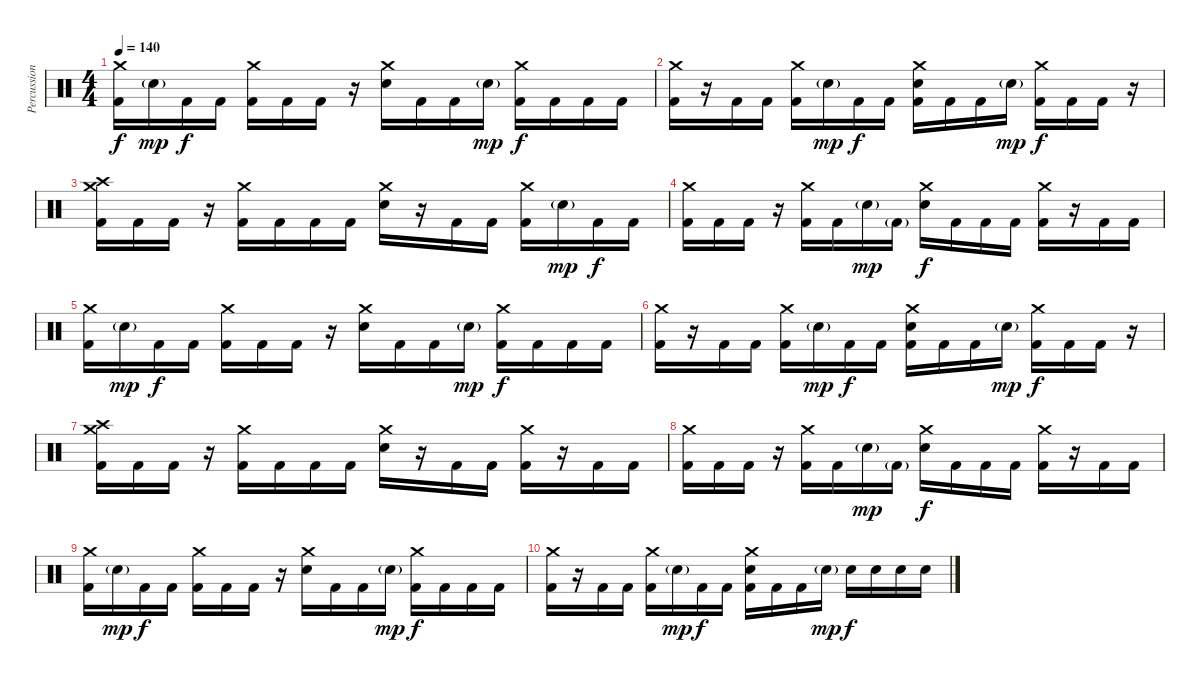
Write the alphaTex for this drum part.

\track ("Percussion" "Percussion") {instrument percussion}
\staff {score}
\articulation defaults
\ts (4 4)
\tempo 140
\clef neutral
\ks c
("Crash medium (hit)" "Kick (hit) 2").16{dy f} "Electric Snare (hit)"{g}.16{dy mp} "Kick (hit) 2".16{dy f} "Kick (hit) 2".16 ("Crash medium (hit)" "Kick (hit) 2").16 "Kick (hit) 2".16 "Kick (hit) 2".16 r.16 ("Crash medium (hit)" "Electric Snare (hit)").16 "Kick (hit) 2".16 "Kick (hit) 2".16 "Electric Snare (hit)"{g}.16{dy mp} ("Crash medium (hit)" "Kick (hit) 2").16{dy f} "Kick (hit) 2".16 "Kick (hit) 2".16 "Kick (hit) 2".16 |
("Crash medium (hit)" "Kick (hit) 2").16 r.16 "Kick (hit) 2".16 "Kick (hit) 2".16 ("Crash medium (hit)" "Kick (hit) 2").16 "Electric Snare (hit)"{g}.16{dy mp} "Kick (hit) 2".16{dy f} "Kick (hit) 2".16 ("Crash medium (hit)" "Electric Snare (hit)" "Kick (hit) 2").16 "Kick (hit) 2".16 "Kick (hit) 2".16 "Electric Snare (hit)"{g}.16{dy mp} ("Crash medium (hit)" "Kick (hit) 2").16{dy f} "Kick (hit) 2".16 "Kick (hit) 2".16 r.16 |
("Crash high (hit)" "Crash medium (hit)" "Kick (hit) 2").16 "Kick (hit) 2".16 "Kick (hit) 2".16 r.16 ("Crash medium (hit)" "Kick (hit) 2").16 "Kick (hit) 2".16 "Kick (hit) 2".16 "Kick (hit) 2".16 ("Crash medium (hit)" "Electric Snare (hit)").16 r.16 "Kick (hit) 2".16 "Kick (hit) 2".16 ("Crash medium (hit)" "Kick (hit) 2").16 "Electric Snare (hit)"{g}.16{dy mp} "Kick (hit) 2".16{dy f} "Kick (hit) 2".16 |
("Crash medium (hit)" "Kick (hit) 2").16 "Kick (hit) 2".16 "Kick (hit) 2".16 r.16 ("Crash medium (hit)" "Kick (hit) 2").16 "Kick (hit) 2".16 "Electric Snare (hit)"{g}.16{dy mp} "Kick (hit) 2"{g}.16 ("Crash medium (hit)" "Electric Snare (hit)").16{dy f} "Kick (hit) 2".16 "Kick (hit) 2".16 "Kick (hit) 2".16 ("Crash medium (hit)" "Kick (hit) 2").16 r.16 "Kick (hit) 2".16 "Kick (hit) 2".16 |
("Crash medium (hit)" "Kick (hit) 2").16 "Electric Snare (hit)"{g}.16{dy mp} "Kick (hit) 2".16{dy f} "Kick (hit) 2".16 ("Crash medium (hit)" "Kick (hit) 2").16 "Kick (hit) 2".16 "Kick (hit) 2".16 r.16 ("Crash medium (hit)" "Electric Snare (hit)").16 "Kick (hit) 2".16 "Kick (hit) 2".16 "Electric Snare (hit)"{g}.16{dy mp} ("Crash medium (hit)" "Kick (hit) 2").16{dy f} "Kick (hit) 2".16 "Kick (hit) 2".16 "Kick (hit) 2".16 |
("Crash medium (hit)" "Kick (hit) 2").16 r.16 "Kick (hit) 2".16 "Kick (hit) 2".16 ("Crash medium (hit)" "Kick (hit) 2").16 "Electric Snare (hit)"{g}.16{dy mp} "Kick (hit) 2".16{dy f} "Kick (hit) 2".16 ("Crash medium (hit)" "Electric Snare (hit)" "Kick (hit) 2").16 "Kick (hit) 2".16 "Kick (hit) 2".16 "Electric Snare (hit)"{g}.16{dy mp} ("Crash medium (hit)" "Kick (hit) 2").16{dy f} "Kick (hit) 2".16 "Kick (hit) 2".16 r.16 |
("Crash high (hit)" "Crash medium (hit)" "Kick (hit) 2").16 "Kick (hit) 2".16 "Kick (hit) 2".16 r.16 ("Crash medium (hit)" "Kick (hit) 2").16 "Kick (hit) 2".16 "Kick (hit) 2".16 "Kick (hit) 2".16 ("Crash medium (hit)" "Electric Snare (hit)").16 r.16 "Kick (hit) 2".16 "Kick (hit) 2".16 ("Crash medium (hit)" "Kick (hit) 2").16 r.16 "Kick (hit) 2".16 "Kick (hit) 2".16 |
("Crash medium (hit)" "Kick (hit) 2").16 "Kick (hit) 2".16 "Kick (hit) 2".16 r.16 ("Crash medium (hit)" "Kick (hit) 2").16 "Kick (hit) 2".16 "Electric Snare (hit)"{g}.16{dy mp} "Kick (hit) 2"{g}.16 ("Crash medium (hit)" "Electric Snare (hit)").16{dy f} "Kick (hit) 2".16 "Kick (hit) 2".16 "Kick (hit) 2".16 ("Crash medium (hit)" "Kick (hit) 2").16 r.16 "Kick (hit) 2".16 "Kick (hit) 2".16 |
("Crash medium (hit)" "Kick (hit) 2").16 "Electric Snare (hit)"{g}.16{dy mp} "Kick (hit) 2".16{dy f} "Kick (hit) 2".16 ("Crash medium (hit)" "Kick (hit) 2").16 "Kick (hit) 2".16 "Kick (hit) 2".16 r.16 ("Crash medium (hit)" "Electric Snare (hit)").16 "Kick (hit) 2".16 "Kick (hit) 2".16 "Electric Snare (hit)"{g}.16{dy mp} ("Crash medium (hit)" "Kick (hit) 2").16{dy f} "Kick (hit) 2".16 "Kick (hit) 2".16 "Kick (hit) 2".16 |
("Crash medium (hit)" "Kick (hit) 2").16 r.16 "Kick (hit) 2".16 "Kick (hit) 2".16 ("Crash medium (hit)" "Kick (hit) 2").16 "Electric Snare (hit)"{g}.16{dy mp} "Kick (hit) 2".16{dy f} "Kick (hit) 2".16 ("Crash medium (hit)" "Electric Snare (hit)" "Kick (hit) 2").16 "Kick (hit) 2".16 "Kick (hit) 2".16 "Electric Snare (hit)"{g}.16{dy mp} "Electric Snare (hit)".16{dy f} "Electric Snare (hit)".16 "Electric Snare (hit)".16 "Electric Snare (hit)".16
